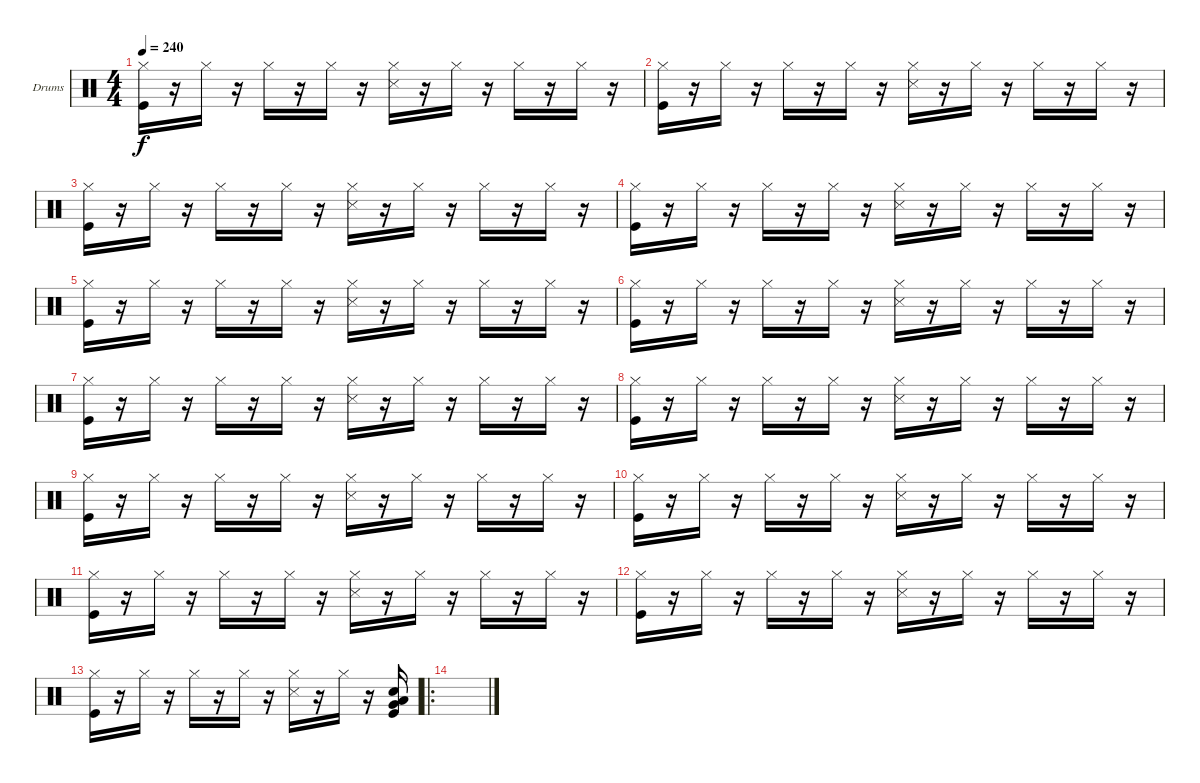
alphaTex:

\bracketExtendMode groupsimilarinstruments
\firstSystemTrackNameOrientation horizontal
\otherSystemsTrackNameOrientation horizontal
\track ("Drumkit" "Drums") {instrument percussion}
\staff {score}
\articulation defaults
\ts (4 4)
\tempo 240
\clef neutral
\ks c
("Hi-Hat (closed)" "Kick (hit)").16{dy f} r.16 "Hi-Hat (closed)".16 r.16 "Hi-Hat (closed)".16 r.16 "Hi-Hat (closed)".16 r.16 ("Hi-Hat (closed)" "Snare (side stick) 3").16 r.16 "Hi-Hat (closed)".16 r.16 "Hi-Hat (closed)".16 r.16 "Hi-Hat (closed)".16 r.16 |
("Hi-Hat (closed)" "Kick (hit)").16 r.16 "Hi-Hat (closed)".16 r.16 "Hi-Hat (closed)".16 r.16 "Hi-Hat (closed)".16 r.16 ("Hi-Hat (closed)" "Snare (side stick) 3").16 r.16 "Hi-Hat (closed)".16 r.16 "Hi-Hat (closed)".16 r.16 "Hi-Hat (closed)".16 r.16 |
("Hi-Hat (closed)" "Kick (hit)").16 r.16 "Hi-Hat (closed)".16 r.16 "Hi-Hat (closed)".16 r.16 "Hi-Hat (closed)".16 r.16 ("Hi-Hat (closed)" "Snare (side stick) 3").16 r.16 "Hi-Hat (closed)".16 r.16 "Hi-Hat (closed)".16 r.16 "Hi-Hat (closed)".16 r.16 |
("Hi-Hat (closed)" "Kick (hit)").16 r.16 "Hi-Hat (closed)".16 r.16 "Hi-Hat (closed)".16 r.16 "Hi-Hat (closed)".16 r.16 ("Hi-Hat (closed)" "Snare (side stick) 3").16 r.16 "Hi-Hat (closed)".16 r.16 "Hi-Hat (closed)".16 r.16 "Hi-Hat (closed)".16 r.16 |
("Hi-Hat (closed)" "Kick (hit)").16 r.16 "Hi-Hat (closed)".16 r.16 "Hi-Hat (closed)".16 r.16 "Hi-Hat (closed)".16 r.16 ("Hi-Hat (closed)" "Snare (side stick) 3").16 r.16 "Hi-Hat (closed)".16 r.16 "Hi-Hat (closed)".16 r.16 "Hi-Hat (closed)".16 r.16 |
("Hi-Hat (closed)" "Kick (hit)").16 r.16 "Hi-Hat (closed)".16 r.16 "Hi-Hat (closed)".16 r.16 "Hi-Hat (closed)".16 r.16 ("Hi-Hat (closed)" "Snare (side stick) 3").16 r.16 "Hi-Hat (closed)".16 r.16 "Hi-Hat (closed)".16 r.16 "Hi-Hat (closed)".16 r.16 |
("Hi-Hat (closed)" "Kick (hit)").16 r.16 "Hi-Hat (closed)".16 r.16 "Hi-Hat (closed)".16 r.16 "Hi-Hat (closed)".16 r.16 ("Hi-Hat (closed)" "Snare (side stick) 3").16 r.16 "Hi-Hat (closed)".16 r.16 "Hi-Hat (closed)".16 r.16 "Hi-Hat (closed)".16 r.16 |
("Hi-Hat (closed)" "Kick (hit)").16 r.16 "Hi-Hat (closed)".16 r.16 "Hi-Hat (closed)".16 r.16 "Hi-Hat (closed)".16 r.16 ("Hi-Hat (closed)" "Snare (side stick) 3").16 r.16 "Hi-Hat (closed)".16 r.16 "Hi-Hat (closed)".16 r.16 "Hi-Hat (closed)".16 r.16 |
("Hi-Hat (closed)" "Kick (hit)").16 r.16 "Hi-Hat (closed)".16 r.16 "Hi-Hat (closed)".16 r.16 "Hi-Hat (closed)".16 r.16 ("Hi-Hat (closed)" "Snare (side stick) 3").16 r.16 "Hi-Hat (closed)".16 r.16 "Hi-Hat (closed)".16 r.16 "Hi-Hat (closed)".16 r.16 |
("Hi-Hat (closed)" "Kick (hit)").16 r.16 "Hi-Hat (closed)".16 r.16 "Hi-Hat (closed)".16 r.16 "Hi-Hat (closed)".16 r.16 ("Hi-Hat (closed)" "Snare (side stick) 3").16 r.16 "Hi-Hat (closed)".16 r.16 "Hi-Hat (closed)".16 r.16 "Hi-Hat (closed)".16 r.16 |
("Hi-Hat (closed)" "Kick (hit)").16 r.16 "Hi-Hat (closed)".16 r.16 "Hi-Hat (closed)".16 r.16 "Hi-Hat (closed)".16 r.16 ("Hi-Hat (closed)" "Snare (side stick) 3").16 r.16 "Hi-Hat (closed)".16 r.16 "Hi-Hat (closed)".16 r.16 "Hi-Hat (closed)".16 r.16 |
("Hi-Hat (closed)" "Kick (hit)").16 r.16 "Hi-Hat (closed)".16 r.16 "Hi-Hat (closed)".16 r.16 "Hi-Hat (closed)".16 r.16 ("Hi-Hat (closed)" "Snare (side stick) 3").16 r.16 "Hi-Hat (closed)".16 r.16 "Hi-Hat (closed)".16 r.16 "Hi-Hat (closed)".16 r.16 |
("Hi-Hat (closed)" "Kick (hit)").16 r.16 "Hi-Hat (closed)".16 r.16 "Hi-Hat (closed)".16 r.16 "Hi-Hat (closed)".16 r.16 ("Hi-Hat (closed)" "Snare (side stick) 3").16 r.16 "Hi-Hat (closed)".16 r.16 ("Snare (hit) 2" "Low Tom (hit)" "Kick (hit)" "Very Low Tom (hit)").16 |
\ro
